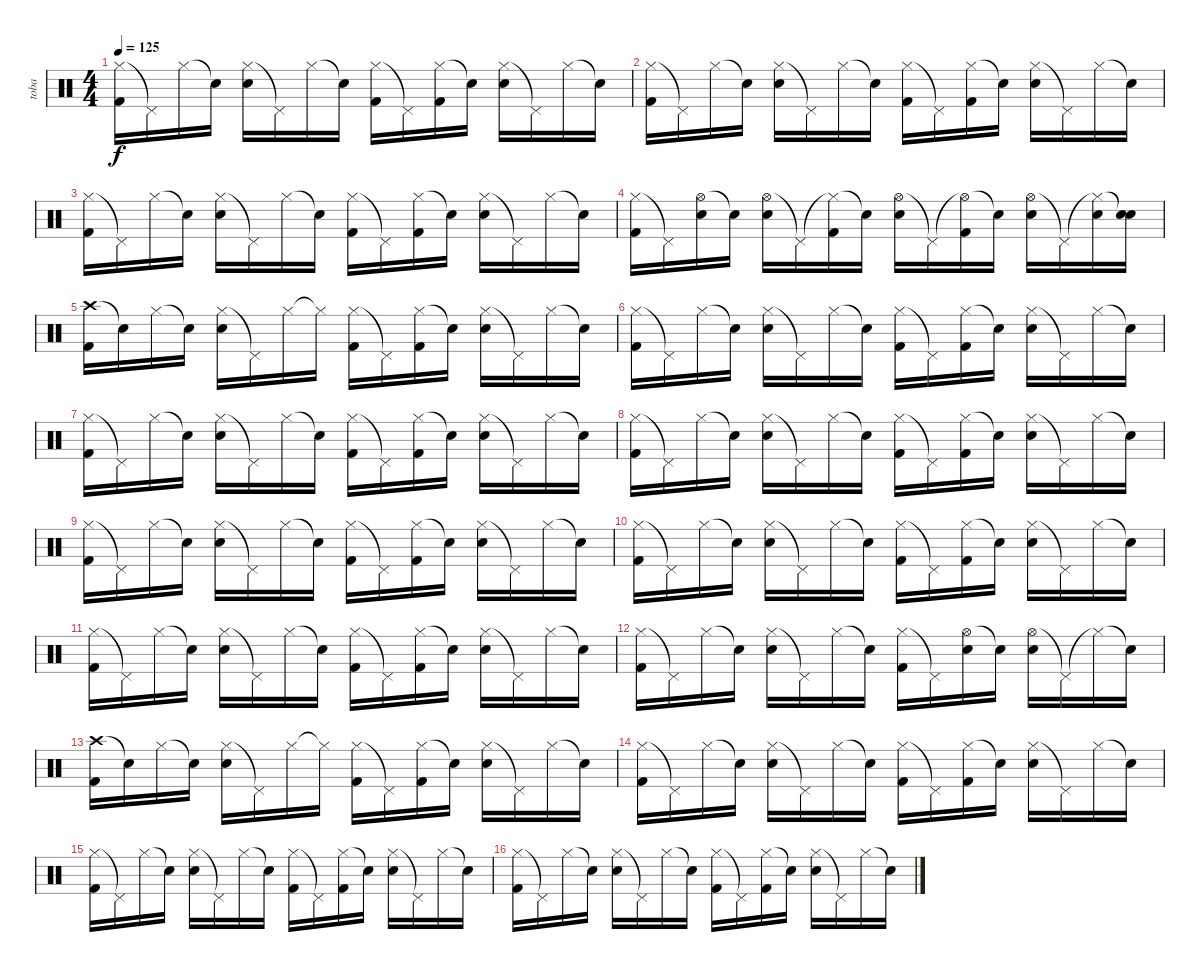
\track ("toba" "toba") {instrument percussion}
\staff {score}
\articulation defaults
\ts (4 4)
\tempo 125
\clef neutral
\ks c
("Hi-Hat (closed)" "Kick (hit) 2").16{dy f} "Pedal Hi-Hat (hit)"{t}.16 "Hi-Hat (closed)".16 "Snare (hit)"{t}.16 ("Hi-Hat (closed)" "Electric Snare (hit)").16 "Pedal Hi-Hat (hit)"{t}.16 "Hi-Hat (closed)".16 "Snare (hit)"{t}.16 ("Hi-Hat (closed)" "Kick (hit) 2").16 "Pedal Hi-Hat (hit)"{t}.16 ("Hi-Hat (closed)" "Kick (hit) 2").16 "Snare (hit)"{t}.16 ("Hi-Hat (closed)" "Electric Snare (hit)").16 "Pedal Hi-Hat (hit)"{t}.16 "Hi-Hat (closed)".16 "Snare (hit)"{t}.16 |
("Hi-Hat (closed)" "Kick (hit) 2").16 "Pedal Hi-Hat (hit)"{t}.16 "Hi-Hat (closed)".16 "Snare (hit)"{t}.16 ("Hi-Hat (closed)" "Electric Snare (hit)").16 "Pedal Hi-Hat (hit)"{t}.16 "Hi-Hat (closed)".16 "Snare (hit)"{t}.16 ("Hi-Hat (closed)" "Kick (hit) 2").16 "Pedal Hi-Hat (hit)"{t}.16 ("Hi-Hat (closed)" "Kick (hit) 2").16 "Snare (hit)"{t}.16 ("Hi-Hat (closed)" "Electric Snare (hit)").16 "Pedal Hi-Hat (hit)"{t}.16 "Hi-Hat (closed)".16 "Snare (hit)"{t}.16 |
("Hi-Hat (closed)" "Kick (hit) 2").16 "Pedal Hi-Hat (hit)"{t}.16 "Hi-Hat (closed)".16 "Snare (hit)"{t}.16 ("Hi-Hat (closed)" "Electric Snare (hit)").16 "Pedal Hi-Hat (hit)"{t}.16 "Hi-Hat (closed)".16 "Snare (hit)"{t}.16 ("Hi-Hat (closed)" "Kick (hit) 2").16 "Pedal Hi-Hat (hit)"{t}.16 ("Hi-Hat (closed)" "Kick (hit) 2").16 "Snare (hit)"{t}.16 ("Hi-Hat (closed)" "Electric Snare (hit)").16 "Pedal Hi-Hat (hit)"{t}.16 "Hi-Hat (closed)".16 "Snare (hit)"{t}.16 |
("Hi-Hat (closed)" "Kick (hit) 2").16 "Pedal Hi-Hat (hit)"{t}.16 ("Hi-Hat (open)" "Electric Snare (hit)").16 "Snare (hit)"{t}.16 ("Hi-Hat (open)" "Electric Snare (hit)").16 "Pedal Hi-Hat (hit)"{t}.16 ("Hi-Hat (closed)"{t} "Kick (hit) 2").16 "Snare (hit)"{t}.16 ("Hi-Hat (open)" "Electric Snare (hit)").16 "Pedal Hi-Hat (hit)"{t}.16 ("Hi-Hat (open)"{t} "Kick (hit) 2").16 "Snare (hit)"{t}.16 ("Hi-Hat (open)" "Electric Snare (hit)").16 "Pedal Hi-Hat (hit)"{t}.16 ("Hi-Hat (closed)"{t} "Electric Snare (hit)").16 ("Snare (hit)"{t} "Electric Snare (hit)").16 |
("Crash high (hit)" "Kick (hit) 2").16{volume 12} "Snare (hit)"{t}.16 "Hi-Hat (closed)".16 "Snare (hit)"{t}.16 ("Hi-Hat (closed)" "Electric Snare (hit)").16 "Pedal Hi-Hat (hit)"{t}.16 "Hi-Hat (closed)".16 "Hi-Hat (closed)"{t}.16 ("Hi-Hat (closed)" "Kick (hit) 2").16 "Pedal Hi-Hat (hit)"{t}.16 ("Hi-Hat (closed)" "Kick (hit) 2").16 "Snare (hit)"{t}.16 ("Hi-Hat (closed)" "Electric Snare (hit)").16 "Pedal Hi-Hat (hit)"{t}.16 "Hi-Hat (closed)".16 "Snare (hit)"{t}.16 |
("Hi-Hat (closed)" "Kick (hit) 2").16 "Pedal Hi-Hat (hit)"{t}.16 "Hi-Hat (closed)".16 "Snare (hit)"{t}.16 ("Hi-Hat (closed)" "Electric Snare (hit)").16 "Pedal Hi-Hat (hit)"{t}.16 "Hi-Hat (closed)".16 "Snare (hit)"{t}.16 ("Hi-Hat (closed)" "Kick (hit) 2").16 "Pedal Hi-Hat (hit)"{t}.16 ("Hi-Hat (closed)" "Kick (hit) 2").16 "Snare (hit)"{t}.16 ("Hi-Hat (closed)" "Electric Snare (hit)").16 "Pedal Hi-Hat (hit)"{t}.16 "Hi-Hat (closed)".16 "Snare (hit)"{t}.16 |
("Hi-Hat (closed)" "Kick (hit) 2").16 "Pedal Hi-Hat (hit)"{t}.16 "Hi-Hat (closed)".16 "Snare (hit)"{t}.16 ("Hi-Hat (closed)" "Electric Snare (hit)").16 "Pedal Hi-Hat (hit)"{t}.16 "Hi-Hat (closed)".16 "Snare (hit)"{t}.16 ("Hi-Hat (closed)" "Kick (hit) 2").16 "Pedal Hi-Hat (hit)"{t}.16 ("Hi-Hat (closed)" "Kick (hit) 2").16 "Snare (hit)"{t}.16 ("Hi-Hat (closed)" "Electric Snare (hit)").16 "Pedal Hi-Hat (hit)"{t}.16 "Hi-Hat (closed)".16 "Snare (hit)"{t}.16 |
("Hi-Hat (closed)" "Kick (hit) 2").16 "Pedal Hi-Hat (hit)"{t}.16 "Hi-Hat (closed)".16 "Snare (hit)"{t}.16 ("Hi-Hat (closed)" "Electric Snare (hit)").16 "Pedal Hi-Hat (hit)"{t}.16 "Hi-Hat (closed)".16 "Snare (hit)"{t}.16 ("Hi-Hat (closed)" "Kick (hit) 2").16 "Pedal Hi-Hat (hit)"{t}.16 ("Hi-Hat (closed)" "Kick (hit) 2").16 "Snare (hit)"{t}.16 ("Hi-Hat (closed)" "Electric Snare (hit)").16 "Pedal Hi-Hat (hit)"{t}.16 "Hi-Hat (closed)".16 "Snare (hit)"{t}.16 |
("Hi-Hat (closed)" "Kick (hit) 2").16{volume 10} "Pedal Hi-Hat (hit)"{t}.16 "Hi-Hat (closed)".16 "Snare (hit)"{t}.16 ("Hi-Hat (closed)" "Electric Snare (hit)").16 "Pedal Hi-Hat (hit)"{t}.16 "Hi-Hat (closed)".16 "Snare (hit)"{t}.16 ("Hi-Hat (closed)" "Kick (hit) 2").16 "Pedal Hi-Hat (hit)"{t}.16 ("Hi-Hat (closed)" "Kick (hit) 2").16 "Snare (hit)"{t}.16 ("Hi-Hat (closed)" "Electric Snare (hit)").16 "Pedal Hi-Hat (hit)"{t}.16 "Hi-Hat (closed)".16 "Snare (hit)"{t}.16 |
("Hi-Hat (closed)" "Kick (hit) 2").16 "Pedal Hi-Hat (hit)"{t}.16 "Hi-Hat (closed)".16 "Snare (hit)"{t}.16 ("Hi-Hat (closed)" "Electric Snare (hit)").16 "Pedal Hi-Hat (hit)"{t}.16 "Hi-Hat (closed)".16 "Snare (hit)"{t}.16 ("Hi-Hat (closed)" "Kick (hit) 2").16 "Pedal Hi-Hat (hit)"{t}.16 ("Hi-Hat (closed)" "Kick (hit) 2").16 "Snare (hit)"{t}.16 ("Hi-Hat (closed)" "Electric Snare (hit)").16 "Pedal Hi-Hat (hit)"{t}.16 "Hi-Hat (closed)".16 "Snare (hit)"{t}.16 |
("Hi-Hat (closed)" "Kick (hit) 2").16 "Pedal Hi-Hat (hit)"{t}.16 "Hi-Hat (closed)".16 "Snare (hit)"{t}.16 ("Hi-Hat (closed)" "Electric Snare (hit)").16 "Pedal Hi-Hat (hit)"{t}.16 "Hi-Hat (closed)".16 "Snare (hit)"{t}.16 ("Hi-Hat (closed)" "Kick (hit) 2").16 "Pedal Hi-Hat (hit)"{t}.16 ("Hi-Hat (closed)" "Kick (hit) 2").16 "Snare (hit)"{t}.16 ("Hi-Hat (closed)" "Electric Snare (hit)").16 "Pedal Hi-Hat (hit)"{t}.16 "Hi-Hat (closed)".16 "Snare (hit)"{t}.16 |
("Hi-Hat (closed)" "Kick (hit) 2").16 "Pedal Hi-Hat (hit)"{t}.16 "Hi-Hat (closed)".16 "Snare (hit)"{t}.16 ("Hi-Hat (closed)" "Electric Snare (hit)").16 "Pedal Hi-Hat (hit)"{t}.16 "Hi-Hat (closed)".16 "Snare (hit)"{t}.16 ("Hi-Hat (closed)" "Kick (hit) 2").16 "Pedal Hi-Hat (hit)"{t}.16 ("Hi-Hat (open)" "Electric Snare (hit)").16 "Snare (hit)"{t}.16 ("Hi-Hat (open)" "Electric Snare (hit)").16 "Pedal Hi-Hat (hit)"{t}.16 "Hi-Hat (closed)"{t}.16 "Snare (hit)"{t}.16 |
("Crash high (hit)" "Kick (hit) 2").16{volume 8} "Snare (hit)"{t}.16 "Hi-Hat (closed)".16 "Snare (hit)"{t}.16 ("Hi-Hat (closed)" "Electric Snare (hit)").16 "Pedal Hi-Hat (hit)"{t}.16 "Hi-Hat (closed)".16 "Hi-Hat (closed)"{t}.16 ("Hi-Hat (closed)" "Kick (hit) 2").16 "Pedal Hi-Hat (hit)"{t}.16 ("Hi-Hat (closed)" "Kick (hit) 2").16 "Snare (hit)"{t}.16 ("Hi-Hat (closed)" "Electric Snare (hit)").16 "Pedal Hi-Hat (hit)"{t}.16 "Hi-Hat (closed)".16 "Snare (hit)"{t}.16 |
("Hi-Hat (closed)" "Kick (hit) 2").16 "Pedal Hi-Hat (hit)"{t}.16 "Hi-Hat (closed)".16 "Snare (hit)"{t}.16 ("Hi-Hat (closed)" "Electric Snare (hit)").16 "Pedal Hi-Hat (hit)"{t}.16 "Hi-Hat (closed)".16 "Snare (hit)"{t}.16 ("Hi-Hat (closed)" "Kick (hit) 2").16 "Pedal Hi-Hat (hit)"{t}.16 ("Hi-Hat (closed)" "Kick (hit) 2").16 "Snare (hit)"{t}.16 ("Hi-Hat (closed)" "Electric Snare (hit)").16 "Pedal Hi-Hat (hit)"{t}.16 "Hi-Hat (closed)".16 "Snare (hit)"{t}.16 |
("Hi-Hat (closed)" "Kick (hit) 2").16 "Pedal Hi-Hat (hit)"{t}.16 "Hi-Hat (closed)".16 "Snare (hit)"{t}.16 ("Hi-Hat (closed)" "Electric Snare (hit)").16 "Pedal Hi-Hat (hit)"{t}.16 "Hi-Hat (closed)".16 "Snare (hit)"{t}.16 ("Hi-Hat (closed)" "Kick (hit) 2").16 "Pedal Hi-Hat (hit)"{t}.16 ("Hi-Hat (closed)" "Kick (hit) 2").16 "Snare (hit)"{t}.16 ("Hi-Hat (closed)" "Electric Snare (hit)").16 "Pedal Hi-Hat (hit)"{t}.16 "Hi-Hat (closed)".16 "Snare (hit)"{t}.16 |
("Hi-Hat (closed)" "Kick (hit) 2").16 "Pedal Hi-Hat (hit)"{t}.16 "Hi-Hat (closed)".16 "Snare (hit)"{t}.16 ("Hi-Hat (closed)" "Electric Snare (hit)").16 "Pedal Hi-Hat (hit)"{t}.16 "Hi-Hat (closed)".16 "Snare (hit)"{t}.16 ("Hi-Hat (closed)" "Kick (hit) 2").16 "Pedal Hi-Hat (hit)"{t}.16 ("Hi-Hat (closed)" "Kick (hit) 2").16 "Snare (hit)"{t}.16 ("Hi-Hat (closed)" "Electric Snare (hit)").16 "Pedal Hi-Hat (hit)"{t}.16 "Hi-Hat (closed)".16 "Snare (hit)"{t}.16
